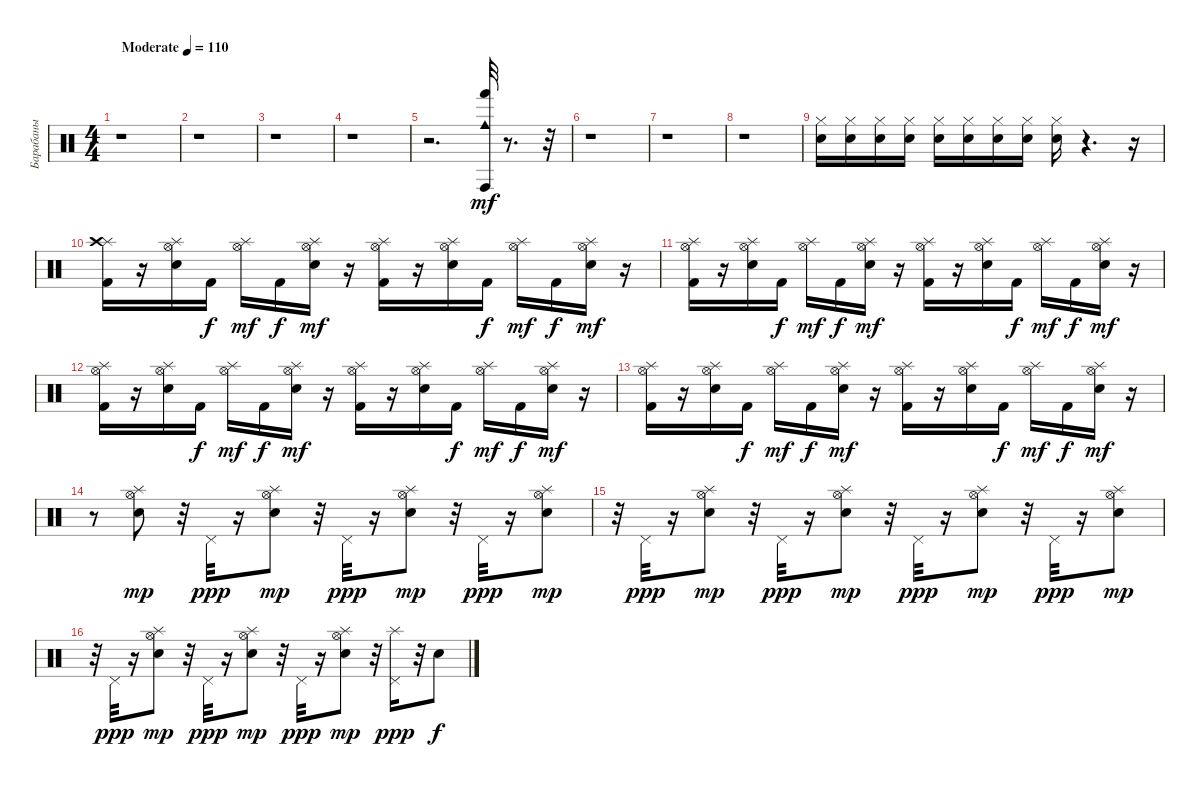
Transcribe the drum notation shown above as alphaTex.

\track ("Барабаны" "Барабаны") {instrument percussion}
\staff {score}
\articulation defaults
\ts (4 4)
\tempo (110 "Moderate")
\clef neutral
\ks c
r.1{dy mf} |
r.1 |
r.1 |
r.1 |
r.2{d} ("Cowbell medium (hit)" "Hand (hit)" "Conga high (hit)").32 r.8{d} r.32 |
r.1 |
r.1 |
r.1 |
("Hi-Hat (closed)" "Electric Snare (hit)").16 ("Hi-Hat (closed)" "Electric Snare (hit)").16 ("Hi-Hat (closed)" "Electric Snare (hit)").16 ("Hi-Hat (closed)" "Electric Snare (hit)").16 ("Hi-Hat (closed)" "Electric Snare (hit)").16 ("Hi-Hat (closed)" "Electric Snare (hit)").16 ("Hi-Hat (closed)" "Electric Snare (hit)").16 ("Hi-Hat (closed)" "Electric Snare (hit)").16 ("Hi-Hat (closed)" "Electric Snare (hit)").16 r.4{d} r.16 |
("Splash (hit)" "Crash high (hit)" "Kick (hit) 2").16 r.16 ("Hi-Hat (open)" "Splash (hit)" "Electric Snare (hit)").16 "Kick (hit) 2".16{dy f} ("Hi-Hat (open)" "Splash (hit)").16{dy mf} "Kick (hit) 2".16{dy f} ("Hi-Hat (open)" "Splash (hit)" "Electric Snare (hit)").16{dy mf} r.16 ("Hi-Hat (open)" "Splash (hit)" "Kick (hit) 2").16 r.16 ("Hi-Hat (open)" "Splash (hit)" "Electric Snare (hit)").16 "Kick (hit) 2".16{dy f} ("Hi-Hat (open)" "Splash (hit)").16{dy mf} "Kick (hit) 2".16{dy f} ("Hi-Hat (open)" "Splash (hit)" "Electric Snare (hit)").16{dy mf} r.16 |
("Hi-Hat (open)" "Splash (hit)" "Kick (hit) 2").16 r.16 ("Hi-Hat (open)" "Splash (hit)" "Electric Snare (hit)").16 "Kick (hit) 2".16{dy f} ("Hi-Hat (open)" "Splash (hit)").16{dy mf} "Kick (hit) 2".16{dy f} ("Hi-Hat (open)" "Splash (hit)" "Electric Snare (hit)").16{dy mf} r.16 ("Hi-Hat (open)" "Splash (hit)" "Kick (hit) 2").16 r.16 ("Hi-Hat (open)" "Splash (hit)" "Electric Snare (hit)").16 "Kick (hit) 2".16{dy f} ("Hi-Hat (open)" "Splash (hit)").16{dy mf} "Kick (hit) 2".16{dy f} ("Hi-Hat (open)" "Splash (hit)" "Electric Snare (hit)").16{dy mf} r.16 |
("Hi-Hat (open)" "Splash (hit)" "Kick (hit) 2").16 r.16 ("Hi-Hat (open)" "Splash (hit)" "Electric Snare (hit)").16 "Kick (hit) 2".16{dy f} ("Hi-Hat (open)" "Splash (hit)").16{dy mf} "Kick (hit) 2".16{dy f} ("Hi-Hat (open)" "Splash (hit)" "Electric Snare (hit)").16{dy mf} r.16 ("Hi-Hat (open)" "Splash (hit)" "Kick (hit) 2").16 r.16 ("Hi-Hat (open)" "Splash (hit)" "Electric Snare (hit)").16 "Kick (hit) 2".16{dy f} ("Hi-Hat (open)" "Splash (hit)").16{dy mf} "Kick (hit) 2".16{dy f} ("Hi-Hat (open)" "Splash (hit)" "Electric Snare (hit)").16{dy mf} r.16 |
("Hi-Hat (open)" "Splash (hit)" "Kick (hit) 2").16 r.16 ("Hi-Hat (open)" "Splash (hit)" "Electric Snare (hit)").16 "Kick (hit) 2".16{dy f} ("Hi-Hat (open)" "Splash (hit)").16{dy mf} "Kick (hit) 2".16{dy f} ("Hi-Hat (open)" "Splash (hit)" "Electric Snare (hit)").16{dy mf} r.16 ("Hi-Hat (open)" "Splash (hit)" "Kick (hit) 2").16 r.16 ("Hi-Hat (open)" "Splash (hit)" "Electric Snare (hit)").16 "Kick (hit) 2".16{dy f} ("Hi-Hat (open)" "Splash (hit)").16{dy mf} "Kick (hit) 2".16{dy f} ("Hi-Hat (open)" "Splash (hit)" "Electric Snare (hit)").16{dy mf} r.16 |
r.8 ("Splash (hit)" "Hi-Hat (open)" "Electric Snare (hit)").8{dy mp} r.32 "Pedal Hi-Hat (hit)".32{dy ppp} r.16 ("Splash (hit)" "Hi-Hat (open)" "Electric Snare (hit)").8{dy mp} r.32 "Pedal Hi-Hat (hit)".32{dy ppp} r.16 ("Splash (hit)" "Hi-Hat (open)" "Electric Snare (hit)").8{dy mp} r.32 "Pedal Hi-Hat (hit)".32{dy ppp} r.16 ("Splash (hit)" "Hi-Hat (open)" "Electric Snare (hit)").8{dy mp} |
r.32 "Pedal Hi-Hat (hit)".32{dy ppp} r.16 ("Splash (hit)" "Hi-Hat (open)" "Electric Snare (hit)").8{dy mp} r.32 "Pedal Hi-Hat (hit)".32{dy ppp} r.16 ("Splash (hit)" "Hi-Hat (open)" "Electric Snare (hit)").8{dy mp} r.32 "Pedal Hi-Hat (hit)".32{dy ppp} r.16 ("Splash (hit)" "Hi-Hat (open)" "Electric Snare (hit)").8{dy mp} r.32 "Pedal Hi-Hat (hit)".32{dy ppp} r.16 ("Splash (hit)" "Hi-Hat (open)" "Electric Snare (hit)").8{dy mp} |
r.32 "Pedal Hi-Hat (hit)".32{dy ppp} r.16 ("Splash (hit)" "Hi-Hat (open)" "Electric Snare (hit)").8{dy mp} r.32 "Pedal Hi-Hat (hit)".32{dy ppp} r.16 ("Splash (hit)" "Hi-Hat (open)" "Electric Snare (hit)").8{dy mp} r.32 "Pedal Hi-Hat (hit)".32{dy ppp} r.16 ("Splash (hit)" "Hi-Hat (open)" "Electric Snare (hit)").8{dy mp} r.32 ("Splash (hit)" "Pedal Hi-Hat (hit)").16{dy ppp} r.32 "Electric Snare (hit)".8{dy f}
